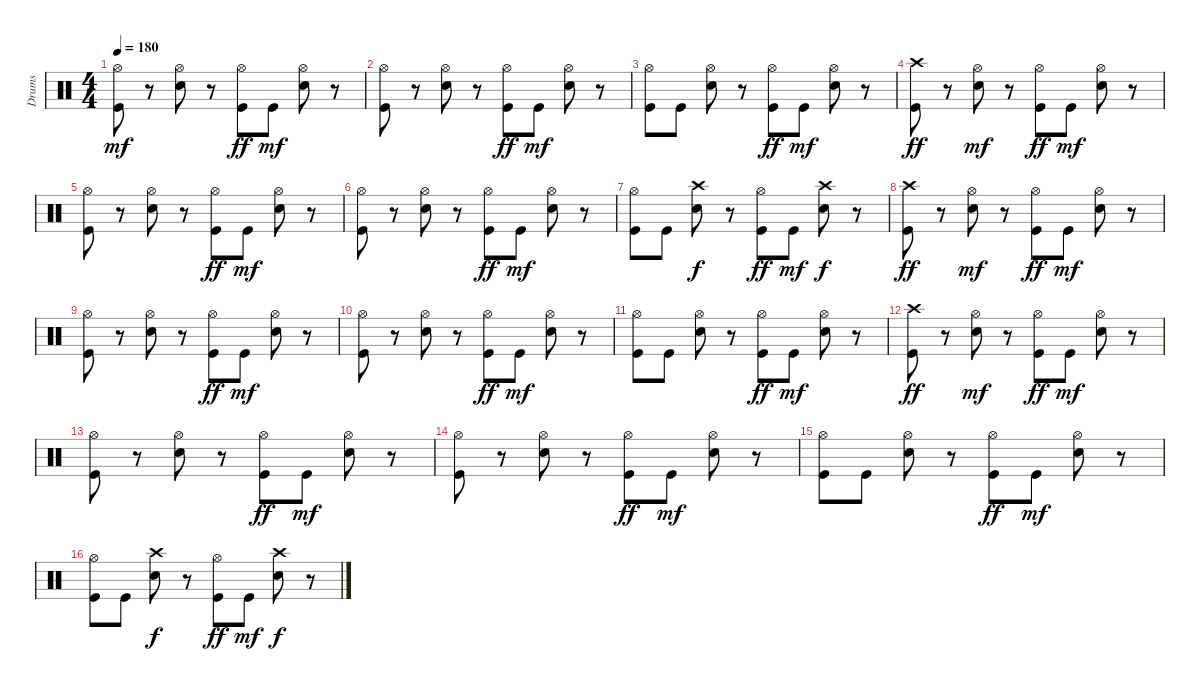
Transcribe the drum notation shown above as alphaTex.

\track ("Drums" "Drums") {instrument percussion}
\staff {score}
\articulation defaults
\ts (4 4)
\tempo 180
\clef neutral
\ks c
("Kick (hit)" "Hi-Hat (open)").8{dy mf} r.8 ("Hi-Hat (open)" "Snare (hit) 2").8 r.8 ("Hi-Hat (open)" "Kick (hit)").8{dy ff} "Kick (hit)".8{dy mf} ("Snare (hit) 2" "Hi-Hat (open)").8 r.8 |
("Kick (hit)" "Hi-Hat (open)").8 r.8 ("Hi-Hat (open)" "Snare (hit) 2").8 r.8 ("Hi-Hat (open)" "Kick (hit)").8{dy ff} "Kick (hit)".8{dy mf} ("Snare (hit) 2" "Hi-Hat (open)").8 r.8 |
("Kick (hit)" "Hi-Hat (open)").8 "Kick (hit)".8 ("Hi-Hat (open)" "Snare (hit) 2").8 r.8 ("Hi-Hat (open)" "Kick (hit)").8{dy ff} "Kick (hit)".8{dy mf} ("Hi-Hat (open)" "Snare (hit) 2").8 r.8 |
("Crash high (hit)" "Kick (hit)").8{dy ff} r.8 ("Hi-Hat (open)" "Snare (hit) 2").8{dy mf} r.8 ("Hi-Hat (open)" "Kick (hit)").8{dy ff} "Kick (hit)".8{dy mf} ("Hi-Hat (open)" "Snare (hit) 2").8 r.8 |
("Kick (hit)" "Hi-Hat (open)").8 r.8 ("Hi-Hat (open)" "Snare (hit) 2").8 r.8 ("Hi-Hat (open)" "Kick (hit)").8{dy ff} "Kick (hit)".8{dy mf} ("Snare (hit) 2" "Hi-Hat (open)").8 r.8 |
("Kick (hit)" "Hi-Hat (open)").8 r.8 ("Hi-Hat (open)" "Snare (hit) 2").8 r.8 ("Hi-Hat (open)" "Kick (hit)").8{dy ff} "Kick (hit)".8{dy mf} ("Snare (hit) 2" "Hi-Hat (open)").8 r.8 |
("Kick (hit)" "Hi-Hat (open)").8 "Kick (hit)".8 ("Crash high (hit)" "Snare (hit) 2").8{dy f} r.8 ("Hi-Hat (open)" "Kick (hit)").8{dy ff} "Kick (hit)".8{dy mf} ("Crash high (hit)" "Snare (hit) 2").8{dy f} r.8 |
("Crash high (hit)" "Kick (hit)").8{dy ff} r.8 ("Hi-Hat (open)" "Snare (hit) 2").8{dy mf} r.8 ("Hi-Hat (open)" "Kick (hit)").8{dy ff} "Kick (hit)".8{dy mf} ("Hi-Hat (open)" "Snare (hit) 2").8 r.8 |
("Kick (hit)" "Hi-Hat (open)").8 r.8 ("Hi-Hat (open)" "Snare (hit) 2").8 r.8 ("Hi-Hat (open)" "Kick (hit)").8{dy ff} "Kick (hit)".8{dy mf} ("Snare (hit) 2" "Hi-Hat (open)").8 r.8 |
("Kick (hit)" "Hi-Hat (open)").8 r.8 ("Hi-Hat (open)" "Snare (hit) 2").8 r.8 ("Hi-Hat (open)" "Kick (hit)").8{dy ff} "Kick (hit)".8{dy mf} ("Snare (hit) 2" "Hi-Hat (open)").8 r.8 |
("Kick (hit)" "Hi-Hat (open)").8 "Kick (hit)".8 ("Hi-Hat (open)" "Snare (hit) 2").8 r.8 ("Hi-Hat (open)" "Kick (hit)").8{dy ff} "Kick (hit)".8{dy mf} ("Hi-Hat (open)" "Snare (hit) 2").8 r.8 |
("Crash high (hit)" "Kick (hit)").8{dy ff} r.8 ("Hi-Hat (open)" "Snare (hit) 2").8{dy mf} r.8 ("Hi-Hat (open)" "Kick (hit)").8{dy ff} "Kick (hit)".8{dy mf} ("Hi-Hat (open)" "Snare (hit) 2").8 r.8 |
("Kick (hit)" "Hi-Hat (open)").8 r.8 ("Hi-Hat (open)" "Snare (hit) 2").8 r.8 ("Hi-Hat (open)" "Kick (hit)").8{dy ff} "Kick (hit)".8{dy mf} ("Snare (hit) 2" "Hi-Hat (open)").8 r.8 |
("Kick (hit)" "Hi-Hat (open)").8 r.8 ("Hi-Hat (open)" "Snare (hit) 2").8 r.8 ("Hi-Hat (open)" "Kick (hit)").8{dy ff} "Kick (hit)".8{dy mf} ("Snare (hit) 2" "Hi-Hat (open)").8 r.8 |
("Kick (hit)" "Hi-Hat (open)").8 "Kick (hit)".8 ("Hi-Hat (open)" "Snare (hit) 2").8 r.8 ("Hi-Hat (open)" "Kick (hit)").8{dy ff} "Kick (hit)".8{dy mf} ("Hi-Hat (open)" "Snare (hit) 2").8 r.8 |
("Kick (hit)" "Hi-Hat (open)").8 "Kick (hit)".8 ("Crash high (hit)" "Snare (hit) 2").8{dy f} r.8 ("Hi-Hat (open)" "Kick (hit)").8{dy ff} "Kick (hit)".8{dy mf} ("Crash high (hit)" "Snare (hit) 2").8{dy f} r.8
